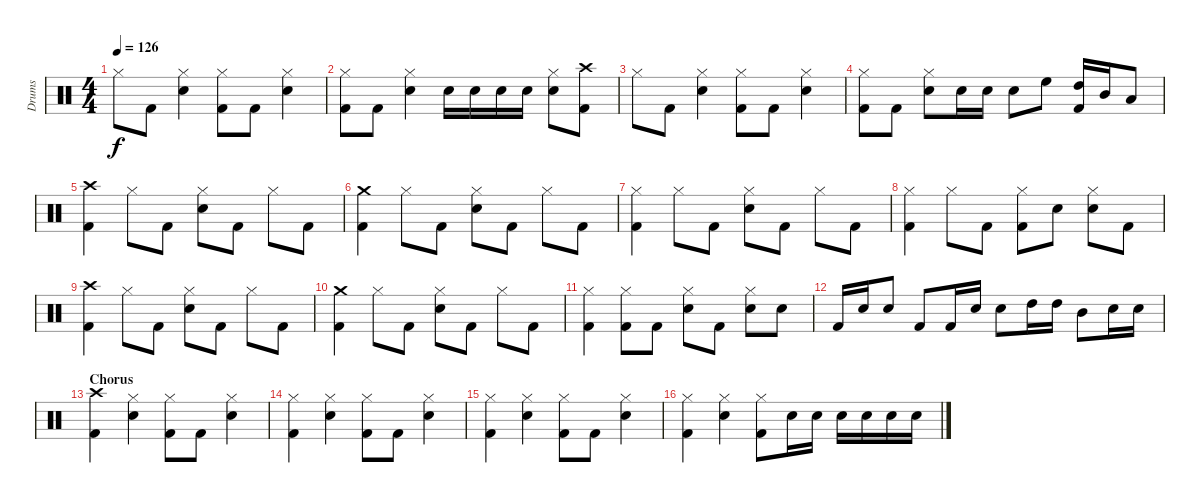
\track ("Drums" "Drums") {instrument percussion}
\staff {score}
\articulation defaults
\ts (4 4)
\tempo 126
\clef neutral
\ks c "Hi-Hat (closed)".8{dy f} "Kick (hit) 2".8
("Hi-Hat (closed)" "Snare (hit) 2").4 ("Hi-Hat (closed)" "Kick (hit) 2").8 "Kick (hit) 2".8 ("Hi-Hat (closed)" "Snare (hit) 2").4 |
("Hi-Hat (closed)" "Kick (hit) 2").8 "Kick (hit) 2".8 ("Hi-Hat (closed)" "Snare (hit) 2").4 "Snare (hit) 2".16 "Snare (hit) 2".16 "Snare (hit) 2".16 "Snare (hit) 2".16 ("Hi-Hat (closed)" "Snare (hit) 2").8 ("Crash high (hit)" "Kick (hit) 2").8 |
"Hi-Hat (closed)".8 "Kick (hit) 2".8 ("Hi-Hat (closed)" "Snare (hit) 2").4 ("Hi-Hat (closed)" "Kick (hit) 2").8 "Kick (hit) 2".8 ("Hi-Hat (closed)" "Snare (hit) 2").4 |
("Hi-Hat (closed)" "Kick (hit) 2").8 "Kick (hit) 2".8 ("Hi-Hat (closed)" "Snare (hit) 2").8 "Snare (hit) 2".16 "Snare (hit) 2".16 "Snare (hit) 2".8 "High Floor Tom (hit)".8 ("High Tom (hit)" "Kick (hit) 2").16 "Mid Tom (hit)".16 "Low Tom (hit)".8 |
("Crash high (hit)" "Kick (hit) 2").4 "Hi-Hat (closed)".8 "Kick (hit) 2".8 ("Hi-Hat (closed)" "Snare (hit) 2").8 "Kick (hit) 2".8 "Hi-Hat (closed)".8 "Kick (hit) 2".8 |
("Crash medium (hit)" "Kick (hit) 2").4 "Hi-Hat (closed)".8 "Kick (hit) 2".8 ("Hi-Hat (closed)" "Snare (hit) 2").8 "Kick (hit) 2".8 "Hi-Hat (closed)".8 "Kick (hit) 2".8 |
("Hi-Hat (closed)" "Kick (hit) 2").4 "Hi-Hat (closed)".8 "Kick (hit) 2".8 ("Hi-Hat (closed)" "Snare (hit) 2").8 "Kick (hit) 2".8 "Hi-Hat (closed)".8 "Kick (hit) 2".8 |
("Hi-Hat (closed)" "Kick (hit) 2").4 "Hi-Hat (closed)".8 "Kick (hit) 2".8 ("Hi-Hat (closed)" "Kick (hit) 2").8 "Snare (hit) 2".8 ("Hi-Hat (closed)" "Snare (hit) 2").8 "Kick (hit) 2".8 |
("Crash high (hit)" "Kick (hit) 2").4 "Hi-Hat (closed)".8 "Kick (hit) 2".8 ("Hi-Hat (closed)" "Snare (hit) 2").8 "Kick (hit) 2".8 "Hi-Hat (closed)".8 "Kick (hit) 2".8 |
("Crash medium (hit)" "Kick (hit) 2").4 "Hi-Hat (closed)".8 "Kick (hit) 2".8 ("Hi-Hat (closed)" "Snare (hit) 2").8 "Kick (hit) 2".8 "Hi-Hat (closed)".8 "Kick (hit) 2".8 |
("Hi-Hat (closed)" "Kick (hit) 2").4 ("Hi-Hat (closed)" "Kick (hit) 2").8 "Kick (hit) 2".8 ("Hi-Hat (closed)" "Snare (hit) 2").8 "Kick (hit) 2".8 ("Hi-Hat (closed)" "Snare (hit) 2").8 "Snare (hit) 2".8 |
"Kick (hit) 2".16 "Snare (hit) 2".16 "Snare (hit) 2".8 "Kick (hit) 2".8 "Kick (hit) 2".16 "Snare (hit) 2".16 "Snare (hit) 2".8 "High Tom (hit)".16 "High Tom (hit)".16 "Mid Tom (hit)".8 "Snare (hit) 2".16 "Snare (hit) 2".16 |
\section ("" "Chorus")
("Crash high (hit)" "Kick (hit) 2").4 ("Hi-Hat (closed)" "Snare (hit) 2").4 ("Hi-Hat (closed)" "Kick (hit) 2").8 "Kick (hit) 2".8 ("Hi-Hat (closed)" "Snare (hit) 2").4 |
("Hi-Hat (closed)" "Kick (hit) 2").4 ("Hi-Hat (closed)" "Snare (hit) 2").4 ("Hi-Hat (closed)" "Kick (hit) 2").8 "Kick (hit) 2".8 ("Hi-Hat (closed)" "Snare (hit) 2").4 |
("Hi-Hat (closed)" "Kick (hit) 2").4 ("Hi-Hat (closed)" "Snare (hit) 2").4 ("Hi-Hat (closed)" "Kick (hit) 2").8 "Kick (hit) 2".8 ("Hi-Hat (closed)" "Snare (hit) 2").4 |
("Hi-Hat (closed)" "Kick (hit) 2").4 ("Hi-Hat (closed)" "Snare (hit) 2").4 ("Hi-Hat (closed)" "Kick (hit) 2").8 "Snare (hit) 2".16 "Snare (hit) 2".16 "Snare (hit) 2".16 "Snare (hit) 2".16 "Snare (hit) 2".16 "Snare (hit) 2".16
